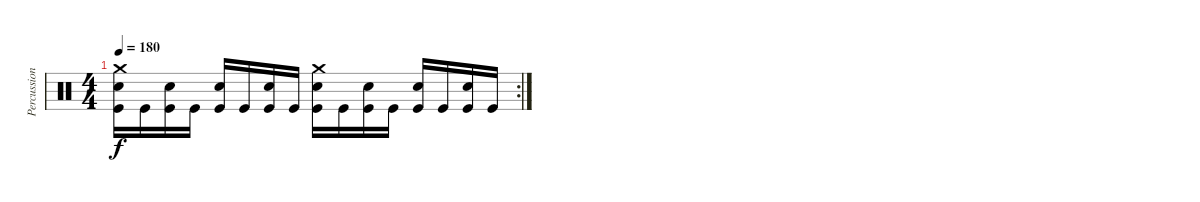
\track ("Percussion" "Percussion") {instrument percussion}
\staff {score}
\articulation defaults
\rc 2
\ts (4 4)
\tempo 180
\clef neutral
\ks c
("Kick (hit)" "Electric Snare (hit)" "Crash medium (hit)").16{dy f} "Kick (hit)".16 ("Kick (hit)" "Electric Snare (hit)").16 "Kick (hit)".16 ("Kick (hit)" "Electric Snare (hit)").16 "Kick (hit)".16 ("Kick (hit)" "Electric Snare (hit)").16 "Kick (hit)".16 ("Kick (hit)" "Electric Snare (hit)" "Crash medium (hit)").16 "Kick (hit)".16 ("Kick (hit)" "Electric Snare (hit)").16 "Kick (hit)".16 ("Kick (hit)" "Electric Snare (hit)").16 "Kick (hit)".16 ("Kick (hit)" "Electric Snare (hit)").16 "Kick (hit)".16
